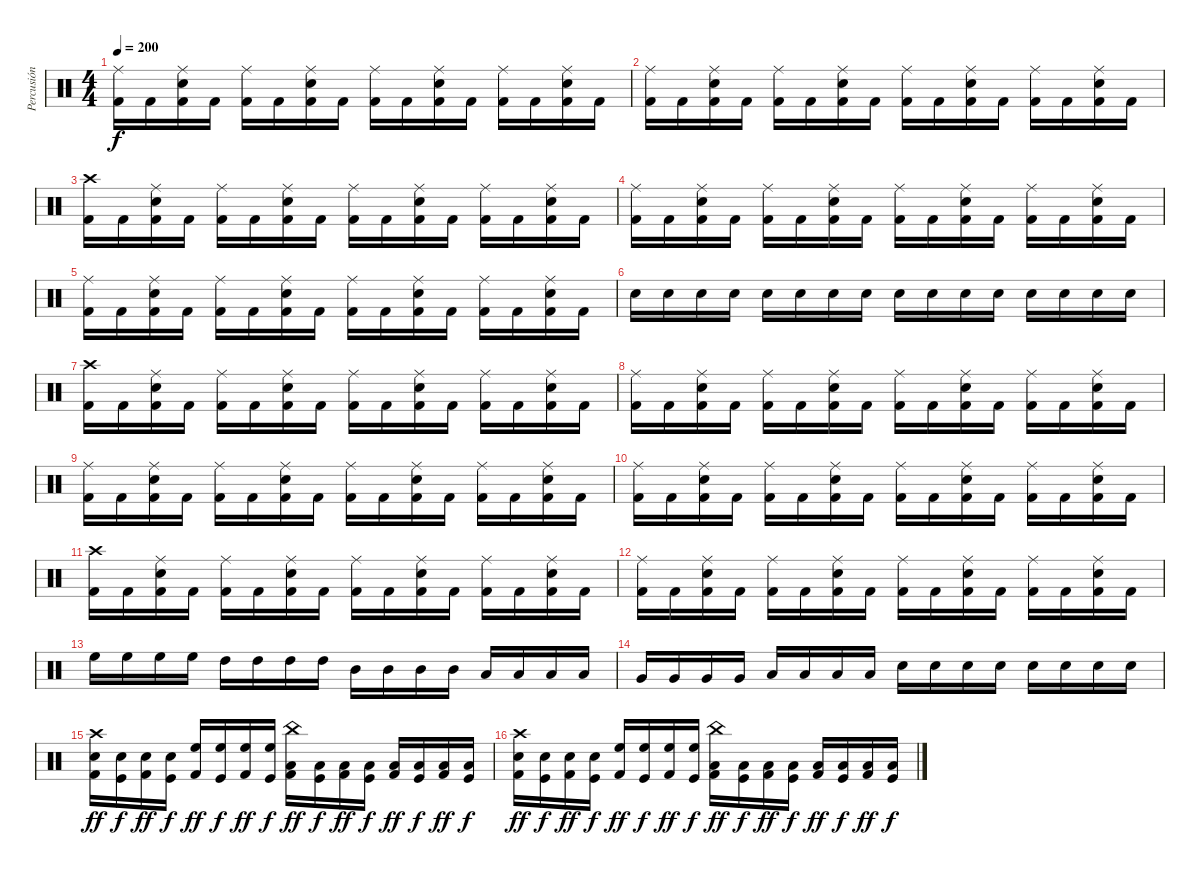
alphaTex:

\track ("Percusión" "Percusión") {instrument percussion}
\staff {score}
\articulation defaults
\ts (4 4)
\tempo 200
\clef neutral
\ks c
("Kick (hit) 2" "Ride (middle)").16{dy f} "Kick (hit) 2".16 ("Kick (hit) 2" "Ride (middle)" "Snare (hit) 2").16 "Kick (hit) 2".16 ("Kick (hit) 2" "Ride (middle)").16 "Kick (hit) 2".16 ("Kick (hit) 2" "Ride (middle)" "Snare (hit) 2").16 "Kick (hit) 2".16 ("Kick (hit) 2" "Ride (middle)").16 "Kick (hit) 2".16 ("Kick (hit) 2" "Ride (middle)" "Snare (hit) 2").16 "Kick (hit) 2".16 ("Kick (hit) 2" "Ride (middle)").16 "Kick (hit) 2".16 ("Kick (hit) 2" "Ride (middle)" "Snare (hit) 2").16 "Kick (hit) 2".16 |
("Kick (hit) 2" "Ride (middle)").16 "Kick (hit) 2".16 ("Kick (hit) 2" "Ride (middle)" "Snare (hit) 2").16 "Kick (hit) 2".16 ("Kick (hit) 2" "Ride (middle)").16 "Kick (hit) 2".16 ("Kick (hit) 2" "Ride (middle)" "Snare (hit) 2").16 "Kick (hit) 2".16 ("Kick (hit) 2" "Ride (middle)").16 "Kick (hit) 2".16 ("Kick (hit) 2" "Ride (middle)" "Snare (hit) 2").16 "Kick (hit) 2".16 ("Kick (hit) 2" "Ride (middle)").16 "Kick (hit) 2".16 ("Kick (hit) 2" "Ride (middle)" "Snare (hit) 2").16 "Kick (hit) 2".16 |
("Kick (hit) 2" "Crash high (hit)").16 "Kick (hit) 2".16 ("Kick (hit) 2" "Ride (middle)" "Snare (hit) 2").16 "Kick (hit) 2".16 ("Kick (hit) 2" "Ride (middle)").16 "Kick (hit) 2".16 ("Kick (hit) 2" "Ride (middle)" "Snare (hit) 2").16 "Kick (hit) 2".16 ("Kick (hit) 2" "Ride (middle)").16 "Kick (hit) 2".16 ("Kick (hit) 2" "Ride (middle)" "Snare (hit) 2").16 "Kick (hit) 2".16 ("Kick (hit) 2" "Ride (middle)").16 "Kick (hit) 2".16 ("Kick (hit) 2" "Ride (middle)" "Snare (hit) 2").16 "Kick (hit) 2".16 |
("Kick (hit) 2" "Ride (middle)").16 "Kick (hit) 2".16 ("Kick (hit) 2" "Ride (middle)" "Snare (hit) 2").16 "Kick (hit) 2".16 ("Kick (hit) 2" "Ride (middle)").16 "Kick (hit) 2".16 ("Kick (hit) 2" "Ride (middle)" "Snare (hit) 2").16 "Kick (hit) 2".16 ("Kick (hit) 2" "Ride (middle)").16 "Kick (hit) 2".16 ("Kick (hit) 2" "Ride (middle)" "Snare (hit) 2").16 "Kick (hit) 2".16 ("Kick (hit) 2" "Ride (middle)").16 "Kick (hit) 2".16 ("Kick (hit) 2" "Ride (middle)" "Snare (hit) 2").16 "Kick (hit) 2".16 |
("Kick (hit) 2" "Ride (middle)").16 "Kick (hit) 2".16 ("Kick (hit) 2" "Ride (middle)" "Snare (hit) 2").16 "Kick (hit) 2".16 ("Kick (hit) 2" "Ride (middle)").16 "Kick (hit) 2".16 ("Kick (hit) 2" "Ride (middle)" "Snare (hit) 2").16 "Kick (hit) 2".16 ("Kick (hit) 2" "Ride (middle)").16 "Kick (hit) 2".16 ("Kick (hit) 2" "Ride (middle)" "Snare (hit) 2").16 "Kick (hit) 2".16 ("Kick (hit) 2" "Ride (middle)").16 "Kick (hit) 2".16 ("Kick (hit) 2" "Ride (middle)" "Snare (hit) 2").16 "Kick (hit) 2".16 |
"Snare (hit) 2".16 "Snare (hit) 2".16 "Snare (hit) 2".16 "Snare (hit) 2".16 "Snare (hit) 2".16 "Snare (hit) 2".16 "Snare (hit) 2".16 "Snare (hit) 2".16 "Snare (hit) 2".16 "Snare (hit) 2".16 "Snare (hit) 2".16 "Snare (hit) 2".16 "Snare (hit) 2".16 "Snare (hit) 2".16 "Snare (hit) 2".16 "Snare (hit) 2".16 |
("Kick (hit) 2" "Crash high (hit)").16 "Kick (hit) 2".16 ("Kick (hit) 2" "Ride (middle)" "Snare (hit) 2").16 "Kick (hit) 2".16 ("Kick (hit) 2" "Ride (middle)").16 "Kick (hit) 2".16 ("Kick (hit) 2" "Ride (middle)" "Snare (hit) 2").16 "Kick (hit) 2".16 ("Kick (hit) 2" "Ride (middle)").16 "Kick (hit) 2".16 ("Kick (hit) 2" "Ride (middle)" "Snare (hit) 2").16 "Kick (hit) 2".16 ("Kick (hit) 2" "Ride (middle)").16 "Kick (hit) 2".16 ("Kick (hit) 2" "Ride (middle)" "Snare (hit) 2").16 "Kick (hit) 2".16 |
("Kick (hit) 2" "Ride (middle)").16 "Kick (hit) 2".16 ("Kick (hit) 2" "Ride (middle)" "Snare (hit) 2").16 "Kick (hit) 2".16 ("Kick (hit) 2" "Ride (middle)").16 "Kick (hit) 2".16 ("Kick (hit) 2" "Ride (middle)" "Snare (hit) 2").16 "Kick (hit) 2".16 ("Kick (hit) 2" "Ride (middle)").16 "Kick (hit) 2".16 ("Kick (hit) 2" "Ride (middle)" "Snare (hit) 2").16 "Kick (hit) 2".16 ("Kick (hit) 2" "Ride (middle)").16 "Kick (hit) 2".16 ("Kick (hit) 2" "Ride (middle)" "Snare (hit) 2").16 "Kick (hit) 2".16 |
("Kick (hit) 2" "Ride (middle)").16 "Kick (hit) 2".16 ("Kick (hit) 2" "Ride (middle)" "Snare (hit) 2").16 "Kick (hit) 2".16 ("Kick (hit) 2" "Ride (middle)").16 "Kick (hit) 2".16 ("Kick (hit) 2" "Ride (middle)" "Snare (hit) 2").16 "Kick (hit) 2".16 ("Kick (hit) 2" "Ride (middle)").16 "Kick (hit) 2".16 ("Kick (hit) 2" "Ride (middle)" "Snare (hit) 2").16 "Kick (hit) 2".16 ("Kick (hit) 2" "Ride (middle)").16 "Kick (hit) 2".16 ("Kick (hit) 2" "Ride (middle)" "Snare (hit) 2").16 "Kick (hit) 2".16 |
("Kick (hit) 2" "Ride (middle)").16 "Kick (hit) 2".16 ("Kick (hit) 2" "Ride (middle)" "Snare (hit) 2").16 "Kick (hit) 2".16 ("Kick (hit) 2" "Ride (middle)").16 "Kick (hit) 2".16 ("Kick (hit) 2" "Ride (middle)" "Snare (hit) 2").16 "Kick (hit) 2".16 ("Kick (hit) 2" "Ride (middle)").16 "Kick (hit) 2".16 ("Kick (hit) 2" "Ride (middle)" "Snare (hit) 2").16 "Kick (hit) 2".16 ("Kick (hit) 2" "Ride (middle)").16 "Kick (hit) 2".16 ("Kick (hit) 2" "Ride (middle)" "Snare (hit) 2").16 "Kick (hit) 2".16 |
("Kick (hit) 2" "Crash high (hit)").16 "Kick (hit) 2".16 ("Kick (hit) 2" "Ride (middle)" "Snare (hit) 2").16 "Kick (hit) 2".16 ("Kick (hit) 2" "Ride (middle)").16 "Kick (hit) 2".16 ("Kick (hit) 2" "Ride (middle)" "Snare (hit) 2").16 "Kick (hit) 2".16 ("Kick (hit) 2" "Ride (middle)").16 "Kick (hit) 2".16 ("Kick (hit) 2" "Ride (middle)" "Snare (hit) 2").16 "Kick (hit) 2".16 ("Kick (hit) 2" "Ride (middle)").16 "Kick (hit) 2".16 ("Kick (hit) 2" "Ride (middle)" "Snare (hit) 2").16 "Kick (hit) 2".16 |
("Kick (hit) 2" "Ride (middle)").16 "Kick (hit) 2".16 ("Kick (hit) 2" "Ride (middle)" "Snare (hit) 2").16 "Kick (hit) 2".16 ("Kick (hit) 2" "Ride (middle)").16 "Kick (hit) 2".16 ("Kick (hit) 2" "Ride (middle)" "Snare (hit) 2").16 "Kick (hit) 2".16 ("Kick (hit) 2" "Ride (middle)").16 "Kick (hit) 2".16 ("Kick (hit) 2" "Ride (middle)" "Snare (hit) 2").16 "Kick (hit) 2".16 ("Kick (hit) 2" "Ride (middle)").16 "Kick (hit) 2".16 ("Kick (hit) 2" "Ride (middle)" "Snare (hit) 2").16 "Kick (hit) 2".16 |
"High Floor Tom (hit)".16 "High Floor Tom (hit)".16 "High Floor Tom (hit)".16 "High Floor Tom (hit)".16 "High Tom (hit)".16 "High Tom (hit)".16 "High Tom (hit)".16 "High Tom (hit)".16 "Mid Tom (hit)".16 "Mid Tom (hit)".16 "Mid Tom (hit)".16 "Mid Tom (hit)".16 "Low Tom (hit)".16 "Low Tom (hit)".16 "Low Tom (hit)".16 "Low Tom (hit)".16 |
"Very Low Tom (hit)".16 "Very Low Tom (hit)".16 "Very Low Tom (hit)".16 "Very Low Tom (hit)".16 "Low Floor Tom (hit)".16 "Low Floor Tom (hit)".16 "Low Floor Tom (hit)".16 "Low Floor Tom (hit)".16 "Snare (hit) 2".16 "Snare (hit) 2".16 "Snare (hit) 2".16 "Snare (hit) 2".16 "Snare (hit) 2".16 "Snare (hit) 2".16 "Snare (hit) 2".16 "Snare (hit) 2".16 |
("Snare (hit) 2" "Kick (hit) 2" "Crash high (hit)").16{dy ff} ("Snare (hit) 2" "Kick (hit)").16{dy f} ("Snare (hit) 2" "Kick (hit) 2").16{dy ff} ("Snare (hit) 2" "Kick (hit)").16{dy f} ("High Floor Tom (hit)" "Kick (hit) 2").16{dy ff} ("High Floor Tom (hit)" "Kick (hit)").16{dy f} ("High Floor Tom (hit)" "Kick (hit) 2").16{dy ff} ("High Floor Tom (hit)" "Kick (hit)").16{dy f} ("Low Tom (hit)" "Kick (hit) 2" "China (hit)").16{dy ff} ("Low Tom (hit)" "Kick (hit)").16{dy f} ("Low Tom (hit)" "Kick (hit) 2").16{dy ff} ("Low Tom (hit)" "Kick (hit)").16{dy f} ("Low Tom (hit)" "Kick (hit) 2").16{dy ff} ("Low Tom (hit)" "Kick (hit)").16{dy f} ("Low Tom (hit)" "Kick (hit) 2").16{dy ff} ("Low Tom (hit)" "Kick (hit)").16{dy f} |
("Snare (hit) 2" "Kick (hit) 2" "Crash high (hit)").16{dy ff} ("Snare (hit) 2" "Kick (hit)").16{dy f} ("Snare (hit) 2" "Kick (hit) 2").16{dy ff} ("Snare (hit) 2" "Kick (hit)").16{dy f} ("High Floor Tom (hit)" "Kick (hit) 2").16{dy ff} ("High Floor Tom (hit)" "Kick (hit)").16{dy f} ("High Floor Tom (hit)" "Kick (hit) 2").16{dy ff} ("High Floor Tom (hit)" "Kick (hit)").16{dy f} ("Low Tom (hit)" "Kick (hit) 2" "China (hit)").16{dy ff} ("Low Tom (hit)" "Kick (hit)").16{dy f} ("Low Tom (hit)" "Kick (hit) 2").16{dy ff} ("Low Tom (hit)" "Kick (hit)").16{dy f} ("Low Tom (hit)" "Kick (hit) 2").16{dy ff} ("Low Tom (hit)" "Kick (hit)").16{dy f} ("Low Tom (hit)" "Kick (hit) 2").16{dy ff} ("Low Tom (hit)" "Kick (hit)").16{dy f}
